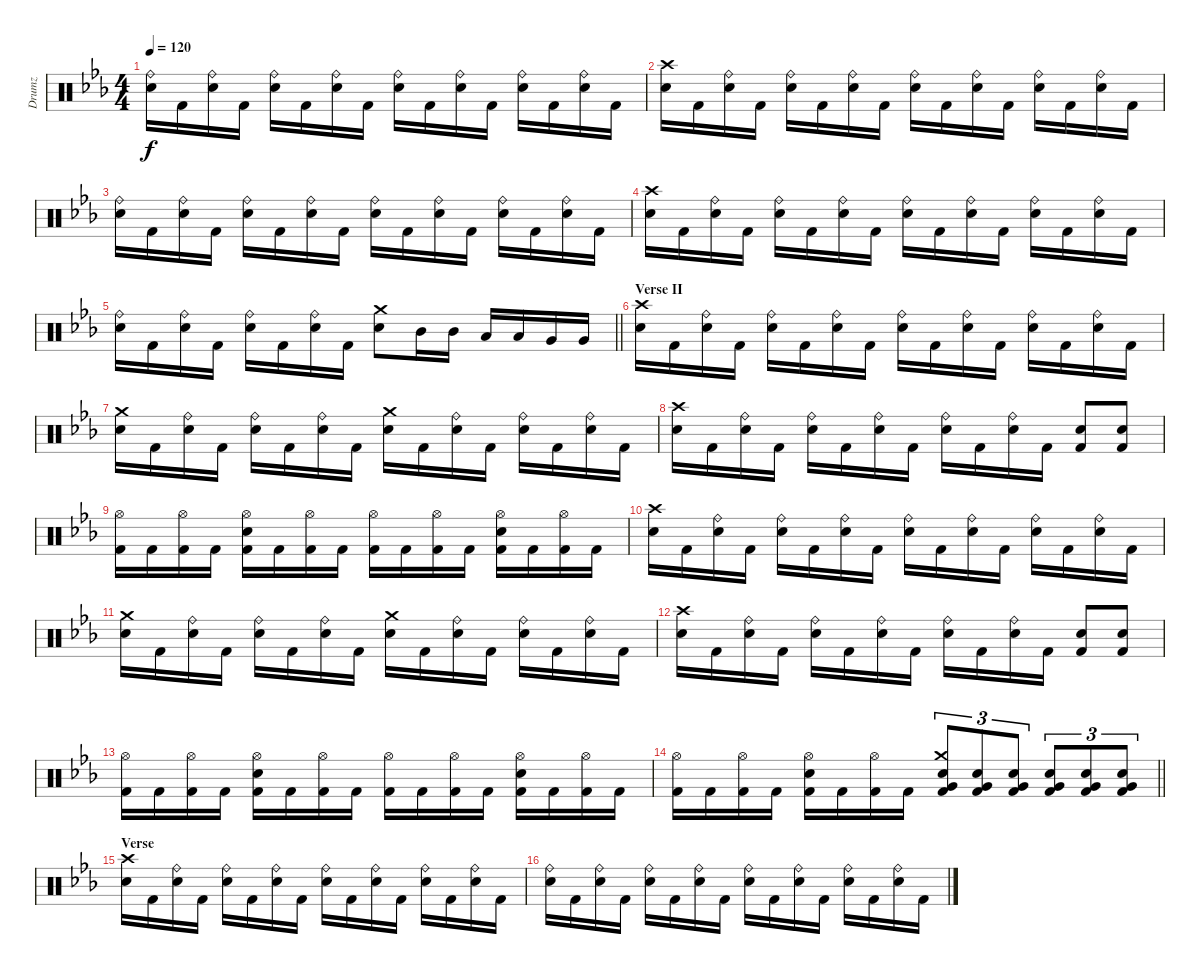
\track ("Drumz" "Drumz") {instrument percussion}
\staff {score}
\articulation defaults
\ts (4 4)
\tempo 120
\clef neutral
\ks eb
("Ride (bell)" "Electric Snare (hit)").16{dy f} "Kick (hit) 2".16 ("Ride (bell)" "Electric Snare (hit)").16 "Kick (hit) 2".16 ("Ride (bell)" "Electric Snare (hit)").16 "Kick (hit) 2".16 ("Ride (bell)" "Electric Snare (hit)").16 "Kick (hit) 2".16 ("Ride (bell)" "Electric Snare (hit)").16 "Kick (hit) 2".16 ("Ride (bell)" "Electric Snare (hit)").16 "Kick (hit) 2".16 ("Ride (bell)" "Electric Snare (hit)").16 "Kick (hit) 2".16 ("Ride (bell)" "Electric Snare (hit)").16 "Kick (hit) 2".16 |
("Crash high (hit)" "Electric Snare (hit)").16 "Kick (hit) 2".16 ("Ride (bell)" "Electric Snare (hit)").16 "Kick (hit) 2".16 ("Ride (bell)" "Electric Snare (hit)").16 "Kick (hit) 2".16 ("Ride (bell)" "Electric Snare (hit)").16 "Kick (hit) 2".16 ("Ride (bell)" "Electric Snare (hit)").16 "Kick (hit) 2".16 ("Ride (bell)" "Electric Snare (hit)").16 "Kick (hit) 2".16 ("Ride (bell)" "Electric Snare (hit)").16 "Kick (hit) 2".16 ("Ride (bell)" "Electric Snare (hit)").16 "Kick (hit) 2".16 |
("Ride (bell)" "Electric Snare (hit)").16 "Kick (hit) 2".16 ("Ride (bell)" "Electric Snare (hit)").16 "Kick (hit) 2".16 ("Ride (bell)" "Electric Snare (hit)").16 "Kick (hit) 2".16 ("Ride (bell)" "Electric Snare (hit)").16 "Kick (hit) 2".16 ("Ride (bell)" "Electric Snare (hit)").16 "Kick (hit) 2".16 ("Ride (bell)" "Electric Snare (hit)").16 "Kick (hit) 2".16 ("Ride (bell)" "Electric Snare (hit)").16 "Kick (hit) 2".16 ("Ride (bell)" "Electric Snare (hit)").16 "Kick (hit) 2".16 |
("Crash high (hit)" "Electric Snare (hit)").16 "Kick (hit) 2".16 ("Ride (bell)" "Electric Snare (hit)").16 "Kick (hit) 2".16 ("Ride (bell)" "Electric Snare (hit)").16 "Kick (hit) 2".16 ("Ride (bell)" "Electric Snare (hit)").16 "Kick (hit) 2".16 ("Ride (bell)" "Electric Snare (hit)").16 "Kick (hit) 2".16 ("Ride (bell)" "Electric Snare (hit)").16 "Kick (hit) 2".16 ("Ride (bell)" "Electric Snare (hit)").16 "Kick (hit) 2".16 ("Ride (bell)" "Electric Snare (hit)").16 "Kick (hit) 2".16 |
\barLineRight lightlight
("Ride (bell)" "Electric Snare (hit)").16 "Kick (hit) 2".16 ("Ride (bell)" "Electric Snare (hit)").16 "Kick (hit) 2".16 ("Ride (bell)" "Electric Snare (hit)").16 "Kick (hit) 2".16 ("Ride (bell)" "Electric Snare (hit)").16 "Kick (hit) 2".16 ("Crash medium (hit)" "Electric Snare (hit)").8 "Mid Tom (hit)".16 "Mid Tom (hit)".16 "Low Tom (hit)".16 "Low Tom (hit)".16 "Very Low Tom (hit)".16 "Very Low Tom (hit)".16 |
\section ("" "Verse II")
("Crash high (hit)" "Electric Snare (hit)").16 "Kick (hit) 2".16 ("Ride (bell)" "Electric Snare (hit)").16 "Kick (hit) 2".16 ("Ride (bell)" "Electric Snare (hit)").16 "Kick (hit) 2".16 ("Ride (bell)" "Electric Snare (hit)").16 "Kick (hit) 2".16 ("Ride (bell)" "Electric Snare (hit)").16 "Kick (hit) 2".16 ("Ride (bell)" "Electric Snare (hit)").16 "Kick (hit) 2".16 ("Ride (bell)" "Electric Snare (hit)").16 "Kick (hit) 2".16 ("Ride (bell)" "Electric Snare (hit)").16 "Kick (hit) 2".16 |
("Crash medium (hit)" "Electric Snare (hit)").16 "Kick (hit) 2".16 ("Ride (bell)" "Electric Snare (hit)").16 "Kick (hit) 2".16 ("Ride (bell)" "Electric Snare (hit)").16 "Kick (hit) 2".16 ("Ride (bell)" "Electric Snare (hit)").16 "Kick (hit) 2".16 ("Crash medium (hit)" "Electric Snare (hit)").16 "Kick (hit) 2".16 ("Ride (bell)" "Electric Snare (hit)").16 "Kick (hit) 2".16 ("Ride (bell)" "Electric Snare (hit)").16 "Kick (hit) 2".16 ("Ride (bell)" "Electric Snare (hit)").16 "Kick (hit) 2".16 |
("Crash high (hit)" "Electric Snare (hit)").16 "Kick (hit) 2".16 ("Ride (bell)" "Electric Snare (hit)").16 "Kick (hit) 2".16 ("Ride (bell)" "Electric Snare (hit)").16 "Kick (hit) 2".16 ("Ride (bell)" "Electric Snare (hit)").16 "Kick (hit) 2".16 ("Ride (bell)" "Electric Snare (hit)").16 "Kick (hit) 2".16 ("Ride (bell)" "Electric Snare (hit)").16 "Kick (hit) 2".16 ("Electric Snare (hit)" "Kick (hit) 2").8 ("Electric Snare (hit)" "Kick (hit) 2").8 |
("Hi-Hat (open)" "Kick (hit) 2").16 "Kick (hit) 2".16 ("Hi-Hat (open)" "Kick (hit) 2").16 "Kick (hit) 2".16 ("Hi-Hat (open)" "Electric Snare (hit)" "Kick (hit) 2").16 "Kick (hit) 2".16 ("Hi-Hat (open)" "Kick (hit) 2").16 "Kick (hit) 2".16 ("Hi-Hat (open)" "Kick (hit) 2").16 "Kick (hit) 2".16 ("Hi-Hat (open)" "Kick (hit) 2").16 "Kick (hit) 2".16 ("Hi-Hat (open)" "Electric Snare (hit)" "Kick (hit) 2").16 "Kick (hit) 2".16 ("Hi-Hat (open)" "Kick (hit) 2").16 "Kick (hit) 2".16 |
("Crash high (hit)" "Electric Snare (hit)").16 "Kick (hit) 2".16 ("Ride (bell)" "Electric Snare (hit)").16 "Kick (hit) 2".16 ("Ride (bell)" "Electric Snare (hit)").16 "Kick (hit) 2".16 ("Ride (bell)" "Electric Snare (hit)").16 "Kick (hit) 2".16 ("Ride (bell)" "Electric Snare (hit)").16 "Kick (hit) 2".16 ("Ride (bell)" "Electric Snare (hit)").16 "Kick (hit) 2".16 ("Ride (bell)" "Electric Snare (hit)").16 "Kick (hit) 2".16 ("Ride (bell)" "Electric Snare (hit)").16 "Kick (hit) 2".16 |
("Crash medium (hit)" "Electric Snare (hit)").16 "Kick (hit) 2".16 ("Ride (bell)" "Electric Snare (hit)").16 "Kick (hit) 2".16 ("Ride (bell)" "Electric Snare (hit)").16 "Kick (hit) 2".16 ("Ride (bell)" "Electric Snare (hit)").16 "Kick (hit) 2".16 ("Crash medium (hit)" "Electric Snare (hit)").16 "Kick (hit) 2".16 ("Ride (bell)" "Electric Snare (hit)").16 "Kick (hit) 2".16 ("Ride (bell)" "Electric Snare (hit)").16 "Kick (hit) 2".16 ("Ride (bell)" "Electric Snare (hit)").16 "Kick (hit) 2".16 |
("Crash high (hit)" "Electric Snare (hit)").16 "Kick (hit) 2".16 ("Ride (bell)" "Electric Snare (hit)").16 "Kick (hit) 2".16 ("Ride (bell)" "Electric Snare (hit)").16 "Kick (hit) 2".16 ("Ride (bell)" "Electric Snare (hit)").16 "Kick (hit) 2".16 ("Ride (bell)" "Electric Snare (hit)").16 "Kick (hit) 2".16 ("Ride (bell)" "Electric Snare (hit)").16 "Kick (hit) 2".16 ("Electric Snare (hit)" "Kick (hit) 2").8 ("Electric Snare (hit)" "Kick (hit) 2").8 |
("Hi-Hat (open)" "Kick (hit) 2").16 "Kick (hit) 2".16 ("Hi-Hat (open)" "Kick (hit) 2").16 "Kick (hit) 2".16 ("Hi-Hat (open)" "Electric Snare (hit)" "Kick (hit) 2").16 "Kick (hit) 2".16 ("Hi-Hat (open)" "Kick (hit) 2").16 "Kick (hit) 2".16 ("Hi-Hat (open)" "Kick (hit) 2").16 "Kick (hit) 2".16 ("Hi-Hat (open)" "Kick (hit) 2").16 "Kick (hit) 2".16 ("Hi-Hat (open)" "Electric Snare (hit)" "Kick (hit) 2").16 "Kick (hit) 2".16 ("Hi-Hat (open)" "Kick (hit) 2").16 "Kick (hit) 2".16 |
\barLineRight lightlight
("Hi-Hat (open)" "Kick (hit) 2").16 "Kick (hit) 2".16 ("Hi-Hat (open)" "Kick (hit) 2").16 "Kick (hit) 2".16 ("Hi-Hat (open)" "Electric Snare (hit)" "Kick (hit) 2").16 "Kick (hit) 2".16 ("Hi-Hat (open)" "Kick (hit) 2").16 "Kick (hit) 2".16 ("Crash medium (hit)" "Electric Snare (hit)" "Very Low Tom (hit)" "Kick (hit) 2").8{tu (3 2)} ("Electric Snare (hit)" "Very Low Tom (hit)" "Kick (hit) 2").8{tu (3 2)} ("Electric Snare (hit)" "Very Low Tom (hit)" "Kick (hit) 2").8{tu (3 2)} ("Electric Snare (hit)" "Very Low Tom (hit)" "Kick (hit) 2").8{tu (3 2)} ("Electric Snare (hit)" "Very Low Tom (hit)" "Kick (hit) 2").8{tu (3 2)} ("Electric Snare (hit)" "Very Low Tom (hit)" "Kick (hit) 2").8{tu (3 2)} |
\section ("" "Verse")
("Crash high (hit)" "Electric Snare (hit)").16 "Kick (hit) 2".16 ("Ride (bell)" "Electric Snare (hit)").16 "Kick (hit) 2".16 ("Ride (bell)" "Electric Snare (hit)").16 "Kick (hit) 2".16 ("Ride (bell)" "Electric Snare (hit)").16 "Kick (hit) 2".16 ("Ride (bell)" "Electric Snare (hit)").16 "Kick (hit) 2".16 ("Ride (bell)" "Electric Snare (hit)").16 "Kick (hit) 2".16 ("Ride (bell)" "Electric Snare (hit)").16 "Kick (hit) 2".16 ("Ride (bell)" "Electric Snare (hit)").16 "Kick (hit) 2".16 |
("Ride (bell)" "Electric Snare (hit)").16 "Kick (hit) 2".16 ("Ride (bell)" "Electric Snare (hit)").16 "Kick (hit) 2".16 ("Ride (bell)" "Electric Snare (hit)").16 "Kick (hit) 2".16 ("Ride (bell)" "Electric Snare (hit)").16 "Kick (hit) 2".16 ("Ride (bell)" "Electric Snare (hit)").16 "Kick (hit) 2".16 ("Ride (bell)" "Electric Snare (hit)").16 "Kick (hit) 2".16 ("Ride (bell)" "Electric Snare (hit)").16 "Kick (hit) 2".16 ("Ride (bell)" "Electric Snare (hit)").16 "Kick (hit) 2".16
